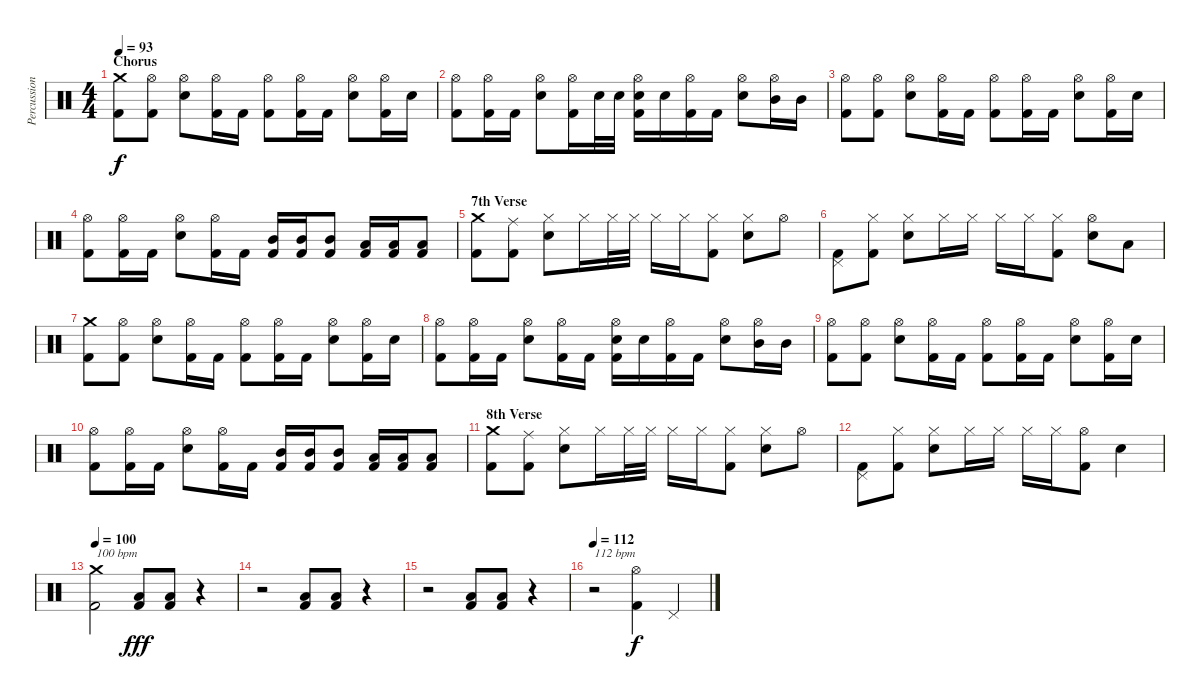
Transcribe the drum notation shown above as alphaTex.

\track ("Percussion" "Percussion") {instrument percussion}
\staff {score}
\articulation defaults
\ts (4 4)
\section ("" "Chorus")
\tempo 93
\clef neutral
\ks c
("Kick (hit) 2" "Crash medium (hit)").8{dy f} ("Kick (hit) 2" "Hi-Hat (open)").8 ("Electric Snare (hit)" "Hi-Hat (open)").8 ("Kick (hit) 2" "Hi-Hat (open)").16 "Kick (hit) 2".16 ("Kick (hit) 2" "Hi-Hat (open)").8 ("Kick (hit) 2" "Hi-Hat (open)").16 "Kick (hit) 2".16 ("Electric Snare (hit)" "Hi-Hat (open)").8 ("Kick (hit) 2" "Hi-Hat (open)").16 "Electric Snare (hit)".16 |
("Kick (hit) 2" "Hi-Hat (open)").8 ("Kick (hit) 2" "Hi-Hat (open)").16 "Kick (hit) 2".16 ("Electric Snare (hit)" "Hi-Hat (open)").8 ("Kick (hit) 2" "Hi-Hat (open)").16 "Electric Snare (hit)".32 "Electric Snare (hit)".32 ("Kick (hit) 2" "Electric Snare (hit)" "Hi-Hat (open)").16 "Electric Snare (hit)".16 ("Kick (hit) 2" "Hi-Hat (open)").16 "Kick (hit) 2".16 ("Electric Snare (hit)" "Hi-Hat (open)").8 ("Mid Tom (hit)" "Hi-Hat (open)").16 "Mid Tom (hit)".16 |
("Kick (hit) 2" "Hi-Hat (open)").8 ("Kick (hit) 2" "Hi-Hat (open)").8 ("Electric Snare (hit)" "Hi-Hat (open)").8 ("Kick (hit) 2" "Hi-Hat (open)").16 "Kick (hit) 2".16 ("Kick (hit) 2" "Hi-Hat (open)").8 ("Kick (hit) 2" "Hi-Hat (open)").16 "Kick (hit) 2".16 ("Electric Snare (hit)" "Hi-Hat (open)").8 ("Kick (hit) 2" "Hi-Hat (open)").16 "Electric Snare (hit)".16 |
("Kick (hit) 2" "Hi-Hat (open)").8 ("Kick (hit) 2" "Hi-Hat (open)").16 "Kick (hit) 2".16 ("Electric Snare (hit)" "Hi-Hat (open)").8 ("Kick (hit) 2" "Hi-Hat (open)").16 "Kick (hit) 2".16 ("Kick (hit) 2" "Mid Tom (hit)").16 ("Kick (hit) 2" "Mid Tom (hit)").16 ("Kick (hit) 2" "Mid Tom (hit)").8 ("Kick (hit) 2" "Low Tom (hit)").16 ("Kick (hit) 2" "Low Tom (hit)").16 ("Kick (hit) 2" "Low Tom (hit)").8 |
\section ("" "7th Verse")
("Kick (hit) 2" "Crash medium (hit)").8 ("Kick (hit) 2" "Ride (middle)").8 ("Electric Snare (hit)" "Hi-Hat (closed)").8 "Hi-Hat (closed)".16 "Hi-Hat (closed)".32 "Hi-Hat (closed)".32 "Hi-Hat (closed)".16 "Hi-Hat (closed)".16 ("Kick (hit) 2" "Hi-Hat (closed)").8 ("Electric Snare (hit)" "Hi-Hat (closed)").8 "Hi-Hat (open)".8 |
("Kick (hit) 2" "Pedal Hi-Hat (hit)").8 ("Kick (hit) 2" "Hi-Hat (closed)").8 ("Electric Snare (hit)" "Hi-Hat (closed)").8 "Hi-Hat (closed)".16 "Hi-Hat (closed)".16 "Hi-Hat (closed)".16 "Hi-Hat (closed)".16 ("Kick (hit) 2" "Hi-Hat (closed)").8 ("Electric Snare (hit)" "Hi-Hat (open)").8 "Low Tom (hit)".8 |
("Kick (hit) 2" "Crash medium (hit)").8 ("Kick (hit) 2" "Hi-Hat (open)").8 ("Electric Snare (hit)" "Hi-Hat (open)").8 ("Kick (hit) 2" "Hi-Hat (open)").16 "Kick (hit) 2".16 ("Kick (hit) 2" "Hi-Hat (open)").8 ("Kick (hit) 2" "Hi-Hat (open)").16 "Kick (hit) 2".16 ("Electric Snare (hit)" "Hi-Hat (open)").8 ("Kick (hit) 2" "Hi-Hat (open)").16 "Electric Snare (hit)".16 |
("Kick (hit) 2" "Hi-Hat (open)").8 ("Kick (hit) 2" "Hi-Hat (open)").16 "Kick (hit) 2".16 ("Electric Snare (hit)" "Hi-Hat (open)").8 ("Kick (hit) 2" "Hi-Hat (open)").16 "Kick (hit) 2".16 ("Kick (hit) 2" "Electric Snare (hit)" "Hi-Hat (open)").16 "Electric Snare (hit)".16 ("Kick (hit) 2" "Hi-Hat (open)").16 "Kick (hit) 2".16 ("Electric Snare (hit)" "Hi-Hat (open)").8 ("Mid Tom (hit)" "Hi-Hat (open)").16 "Mid Tom (hit)".16 |
("Kick (hit) 2" "Hi-Hat (open)").8 ("Kick (hit) 2" "Hi-Hat (open)").8 ("Electric Snare (hit)" "Hi-Hat (open)").8 ("Kick (hit) 2" "Hi-Hat (open)").16 "Kick (hit) 2".16 ("Kick (hit) 2" "Hi-Hat (open)").8 ("Kick (hit) 2" "Hi-Hat (open)").16 "Kick (hit) 2".16 ("Electric Snare (hit)" "Hi-Hat (open)").8 ("Kick (hit) 2" "Hi-Hat (open)").16 "Electric Snare (hit)".16 |
("Kick (hit) 2" "Hi-Hat (open)").8 ("Kick (hit) 2" "Hi-Hat (open)").16 "Kick (hit) 2".16 ("Electric Snare (hit)" "Hi-Hat (open)").8 ("Kick (hit) 2" "Hi-Hat (open)").16 "Kick (hit) 2".16 ("Kick (hit) 2" "Mid Tom (hit)").16 ("Kick (hit) 2" "Mid Tom (hit)").16 ("Kick (hit) 2" "Mid Tom (hit)").8 ("Kick (hit) 2" "Low Tom (hit)").16 ("Kick (hit) 2" "Low Tom (hit)").16 ("Kick (hit) 2" "Low Tom (hit)").8 |
\section ("" "8th Verse")
("Kick (hit) 2" "Crash medium (hit)").8 ("Kick (hit) 2" "Ride (middle)").8 ("Electric Snare (hit)" "Hi-Hat (closed)").8 "Hi-Hat (closed)".16 "Hi-Hat (closed)".32 "Hi-Hat (closed)".32 "Hi-Hat (closed)".16 "Hi-Hat (closed)".16 ("Kick (hit) 2" "Hi-Hat (closed)").8 ("Electric Snare (hit)" "Hi-Hat (closed)").8 "Hi-Hat (open)".8 |
("Kick (hit) 2" "Pedal Hi-Hat (hit)").8 ("Kick (hit) 2" "Hi-Hat (closed)").8 ("Electric Snare (hit)" "Hi-Hat (closed)").8 "Hi-Hat (closed)".16 "Hi-Hat (closed)".16 "Hi-Hat (closed)".16 "Hi-Hat (closed)".16 ("Kick (hit) 2" "Hi-Hat (open)").8 "Electric Snare (hit)".4 |
\tempo 100
("Kick (hit) 2" "Crash medium (hit)").2{txt "100 bpm"} ("Kick (hit) 2" "Low Floor Tom (hit)").8{dy fff} ("Kick (hit) 2" "Low Floor Tom (hit)").8 r.4 |
r.2 ("Kick (hit) 2" "Low Floor Tom (hit)").8 ("Kick (hit) 2" "Low Floor Tom (hit)").8 r.4 |
r.2 ("Kick (hit) 2" "Low Floor Tom (hit)").8 ("Kick (hit) 2" "Low Floor Tom (hit)").8 r.4 |
\tempo 112
r.2{txt "112 bpm"} ("Kick (hit) 2" "Hi-Hat (open)").4{dy f} "Pedal Hi-Hat (hit)".4
